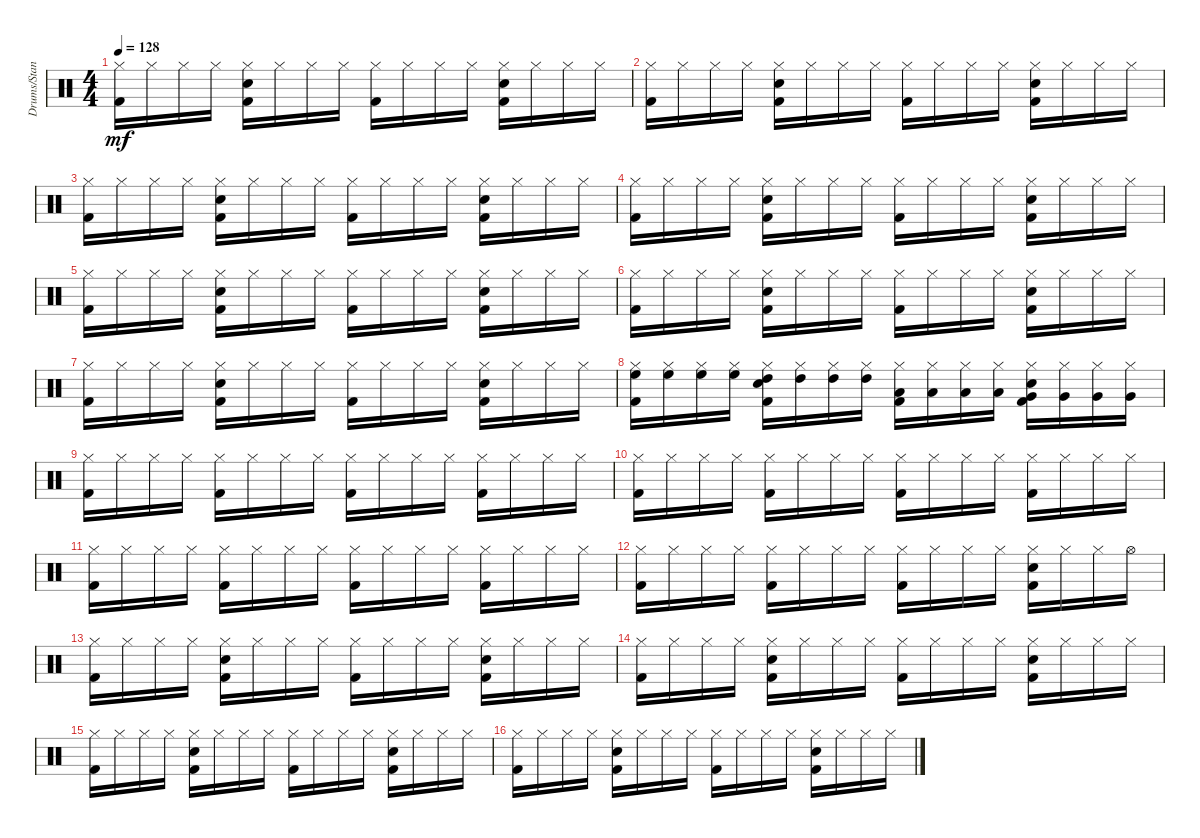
\track ("Drums/Standard" "Drums/Stan") {instrument percussion}
\staff {score}
\articulation defaults
\ts (4 4)
\tempo 128
\clef neutral
\ks c
("Kick (hit) 2" "Hi-Hat (closed)").16{dy mf} "Hi-Hat (closed)".16 "Hi-Hat (closed)".16 "Hi-Hat (closed)".16 ("Snare (hit) 2" "Kick (hit) 2" "Hi-Hat (closed)").16 "Hi-Hat (closed)".16 "Hi-Hat (closed)".16 "Hi-Hat (closed)".16 ("Kick (hit) 2" "Hi-Hat (closed)").16 "Hi-Hat (closed)".16 "Hi-Hat (closed)".16 "Hi-Hat (closed)".16 ("Kick (hit) 2" "Hi-Hat (closed)" "Snare (hit) 2").16 "Hi-Hat (closed)".16 "Hi-Hat (closed)".16 "Hi-Hat (closed)".16 |
("Hi-Hat (closed)" "Kick (hit) 2").16 "Hi-Hat (closed)".16 "Hi-Hat (closed)".16 "Hi-Hat (closed)".16 ("Hi-Hat (closed)" "Kick (hit) 2" "Snare (hit) 2").16 "Hi-Hat (closed)".16 "Hi-Hat (closed)".16 "Hi-Hat (closed)".16 ("Kick (hit) 2" "Hi-Hat (closed)").16 "Hi-Hat (closed)".16 "Hi-Hat (closed)".16 "Hi-Hat (closed)".16 ("Kick (hit) 2" "Snare (hit) 2" "Hi-Hat (closed)").16 "Hi-Hat (closed)".16 "Hi-Hat (closed)".16 "Hi-Hat (closed)".16 |
("Hi-Hat (closed)" "Kick (hit) 2").16 "Hi-Hat (closed)".16 "Hi-Hat (closed)".16 "Hi-Hat (closed)".16 ("Hi-Hat (closed)" "Kick (hit) 2" "Snare (hit) 2").16 "Hi-Hat (closed)".16 "Hi-Hat (closed)".16 "Hi-Hat (closed)".16 ("Hi-Hat (closed)" "Kick (hit) 2").16 "Hi-Hat (closed)".16 "Hi-Hat (closed)".16 "Hi-Hat (closed)".16 ("Snare (hit) 2" "Hi-Hat (closed)" "Kick (hit) 2").16 "Hi-Hat (closed)".16 "Hi-Hat (closed)".16 "Hi-Hat (closed)".16 |
("Kick (hit) 2" "Hi-Hat (closed)").16 "Hi-Hat (closed)".16 "Hi-Hat (closed)".16 "Hi-Hat (closed)".16 ("Snare (hit) 2" "Kick (hit) 2" "Hi-Hat (closed)").16 "Hi-Hat (closed)".16 "Hi-Hat (closed)".16 "Hi-Hat (closed)".16 ("Hi-Hat (closed)" "Kick (hit) 2").16 "Hi-Hat (closed)".16 "Hi-Hat (closed)".16 "Hi-Hat (closed)".16 ("Hi-Hat (closed)" "Snare (hit) 2" "Kick (hit) 2").16 "Hi-Hat (closed)".16 "Hi-Hat (closed)".16 "Hi-Hat (closed)".16 |
("Kick (hit) 2" "Hi-Hat (closed)").16 "Hi-Hat (closed)".16 "Hi-Hat (closed)".16 "Hi-Hat (closed)".16 ("Snare (hit) 2" "Kick (hit) 2" "Hi-Hat (closed)").16 "Hi-Hat (closed)".16 "Hi-Hat (closed)".16 "Hi-Hat (closed)".16 ("Kick (hit) 2" "Hi-Hat (closed)").16 "Hi-Hat (closed)".16 "Hi-Hat (closed)".16 "Hi-Hat (closed)".16 ("Kick (hit) 2" "Hi-Hat (closed)" "Snare (hit) 2").16 "Hi-Hat (closed)".16 "Hi-Hat (closed)".16 "Hi-Hat (closed)".16 |
("Hi-Hat (closed)" "Kick (hit) 2").16 "Hi-Hat (closed)".16 "Hi-Hat (closed)".16 "Hi-Hat (closed)".16 ("Hi-Hat (closed)" "Kick (hit) 2" "Snare (hit) 2").16 "Hi-Hat (closed)".16 "Hi-Hat (closed)".16 "Hi-Hat (closed)".16 ("Kick (hit) 2" "Hi-Hat (closed)").16 "Hi-Hat (closed)".16 "Hi-Hat (closed)".16 "Hi-Hat (closed)".16 ("Kick (hit) 2" "Snare (hit) 2" "Hi-Hat (closed)").16 "Hi-Hat (closed)".16 "Hi-Hat (closed)".16 "Hi-Hat (closed)".16 |
("Hi-Hat (closed)" "Kick (hit) 2").16 "Hi-Hat (closed)".16 "Hi-Hat (closed)".16 "Hi-Hat (closed)".16 ("Hi-Hat (closed)" "Kick (hit) 2" "Snare (hit) 2").16 "Hi-Hat (closed)".16 "Hi-Hat (closed)".16 "Hi-Hat (closed)".16 ("Hi-Hat (closed)" "Kick (hit) 2").16 "Hi-Hat (closed)".16 "Hi-Hat (closed)".16 "Hi-Hat (closed)".16 ("Snare (hit) 2" "Hi-Hat (closed)" "Kick (hit) 2").16 "Hi-Hat (closed)".16 "Hi-Hat (closed)".16 "Hi-Hat (closed)".16 |
("Kick (hit) 2" "Hi-Hat (closed)" "High Floor Tom (hit)").16 ("Hi-Hat (closed)" "High Floor Tom (hit)").16 ("Hi-Hat (closed)" "High Floor Tom (hit)").16 ("Hi-Hat (closed)" "High Floor Tom (hit)").16 ("Snare (hit) 2" "Kick (hit) 2" "Hi-Hat (closed)" "High Tom (hit)").16 ("Hi-Hat (closed)" "High Tom (hit)").16 ("Hi-Hat (closed)" "High Tom (hit)").16 ("Hi-Hat (closed)" "High Tom (hit)").16 ("Hi-Hat (closed)" "Kick (hit) 2" "Low Tom (hit)").16 ("Hi-Hat (closed)" "Low Tom (hit)").16 ("Hi-Hat (closed)" "Low Tom (hit)").16 ("Hi-Hat (closed)" "Low Tom (hit)").16 ("Hi-Hat (closed)" "Snare (hit) 2" "Kick (hit) 2" "Very Low Tom (hit)").16 ("Hi-Hat (closed)" "Very Low Tom (hit)").16 ("Hi-Hat (closed)" "Very Low Tom (hit)").16 ("Hi-Hat (closed)" "Very Low Tom (hit)").16 |
("Kick (hit) 2" "Hi-Hat (closed)").16 "Hi-Hat (closed)".16 "Hi-Hat (closed)".16 "Hi-Hat (closed)".16 ("Kick (hit) 2" "Hi-Hat (closed)").16 "Hi-Hat (closed)".16 "Hi-Hat (closed)".16 "Hi-Hat (closed)".16 ("Kick (hit) 2" "Hi-Hat (closed)").16 "Hi-Hat (closed)".16 "Hi-Hat (closed)".16 "Hi-Hat (closed)".16 ("Kick (hit) 2" "Hi-Hat (closed)").16 "Hi-Hat (closed)".16 "Hi-Hat (closed)".16 "Hi-Hat (closed)".16 |
("Kick (hit) 2" "Hi-Hat (closed)").16 "Hi-Hat (closed)".16 "Hi-Hat (closed)".16 "Hi-Hat (closed)".16 ("Kick (hit) 2" "Hi-Hat (closed)").16 "Hi-Hat (closed)".16 "Hi-Hat (closed)".16 "Hi-Hat (closed)".16 ("Kick (hit) 2" "Hi-Hat (closed)").16 "Hi-Hat (closed)".16 "Hi-Hat (closed)".16 "Hi-Hat (closed)".16 ("Kick (hit) 2" "Hi-Hat (closed)").16 "Hi-Hat (closed)".16 "Hi-Hat (closed)".16 "Hi-Hat (closed)".16 |
("Kick (hit) 2" "Hi-Hat (closed)").16 "Hi-Hat (closed)".16 "Hi-Hat (closed)".16 "Hi-Hat (closed)".16 ("Kick (hit) 2" "Hi-Hat (closed)").16 "Hi-Hat (closed)".16 "Hi-Hat (closed)".16 "Hi-Hat (closed)".16 ("Kick (hit) 2" "Hi-Hat (closed)").16 "Hi-Hat (closed)".16 "Hi-Hat (closed)".16 "Hi-Hat (closed)".16 ("Kick (hit) 2" "Hi-Hat (closed)").16 "Hi-Hat (closed)".16 "Hi-Hat (closed)".16 "Hi-Hat (closed)".16 |
("Kick (hit) 2" "Hi-Hat (closed)").16 "Hi-Hat (closed)".16 "Hi-Hat (closed)".16 "Hi-Hat (closed)".16 ("Kick (hit) 2" "Hi-Hat (closed)").16 "Hi-Hat (closed)".16 "Hi-Hat (closed)".16 "Hi-Hat (closed)".16 ("Kick (hit) 2" "Hi-Hat (closed)").16 "Hi-Hat (closed)".16 "Hi-Hat (closed)".16 "Hi-Hat (closed)".16 ("Kick (hit) 2" "Hi-Hat (closed)" "Snare (hit) 2").16 "Hi-Hat (closed)".16 "Hi-Hat (closed)".16 "Hi-Hat (open)".16 |
("Hi-Hat (closed)" "Kick (hit) 2").16 "Hi-Hat (closed)".16 "Hi-Hat (closed)".16 "Hi-Hat (closed)".16 ("Hi-Hat (closed)" "Kick (hit) 2" "Snare (hit) 2").16 "Hi-Hat (closed)".16 "Hi-Hat (closed)".16 "Hi-Hat (closed)".16 ("Hi-Hat (closed)" "Kick (hit) 2").16 "Hi-Hat (closed)".16 "Hi-Hat (closed)".16 "Hi-Hat (closed)".16 ("Snare (hit) 2" "Hi-Hat (closed)" "Kick (hit) 2").16 "Hi-Hat (closed)".16 "Hi-Hat (closed)".16 "Hi-Hat (closed)".16 |
("Hi-Hat (closed)" "Kick (hit) 2").16 "Hi-Hat (closed)".16 "Hi-Hat (closed)".16 "Hi-Hat (closed)".16 ("Hi-Hat (closed)" "Kick (hit) 2" "Snare (hit) 2").16 "Hi-Hat (closed)".16 "Hi-Hat (closed)".16 "Hi-Hat (closed)".16 ("Hi-Hat (closed)" "Kick (hit) 2").16 "Hi-Hat (closed)".16 "Hi-Hat (closed)".16 "Hi-Hat (closed)".16 ("Snare (hit) 2" "Hi-Hat (closed)" "Kick (hit) 2").16 "Hi-Hat (closed)".16 "Hi-Hat (closed)".16 "Hi-Hat (closed)".16 |
("Hi-Hat (closed)" "Kick (hit) 2").16 "Hi-Hat (closed)".16 "Hi-Hat (closed)".16 "Hi-Hat (closed)".16 ("Hi-Hat (closed)" "Kick (hit) 2" "Snare (hit) 2").16 "Hi-Hat (closed)".16 "Hi-Hat (closed)".16 "Hi-Hat (closed)".16 ("Hi-Hat (closed)" "Kick (hit) 2").16 "Hi-Hat (closed)".16 "Hi-Hat (closed)".16 "Hi-Hat (closed)".16 ("Snare (hit) 2" "Hi-Hat (closed)" "Kick (hit) 2").16 "Hi-Hat (closed)".16 "Hi-Hat (closed)".16 "Hi-Hat (closed)".16 |
("Hi-Hat (closed)" "Kick (hit) 2").16 "Hi-Hat (closed)".16 "Hi-Hat (closed)".16 "Hi-Hat (closed)".16 ("Snare (hit) 2" "Kick (hit) 2" "Hi-Hat (closed)").16 "Hi-Hat (closed)".16 "Hi-Hat (closed)".16 "Hi-Hat (closed)".16 ("Hi-Hat (closed)" "Kick (hit) 2").16 "Hi-Hat (closed)".16 "Hi-Hat (closed)".16 "Hi-Hat (closed)".16 ("Snare (hit) 2" "Hi-Hat (closed)" "Kick (hit) 2").16 "Hi-Hat (closed)".16 "Hi-Hat (closed)".16 "Hi-Hat (closed)".16
